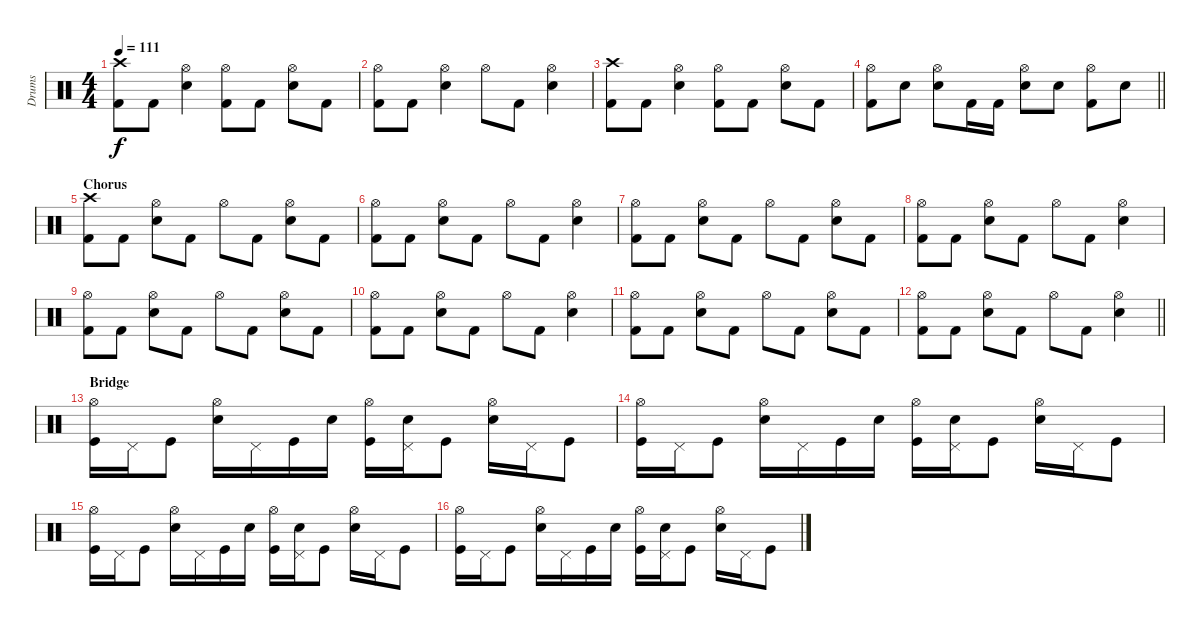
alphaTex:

\track ("Drums" "Drums") {instrument percussion}
\staff {score}
\articulation defaults
\ts (4 4)
\tempo 111
\clef neutral
\ks c
("Crash high (hit)" "Kick (hit) 2").8{dy f} "Kick (hit) 2".8 ("Hi-Hat (open)" "Snare (hit) 2").4 ("Hi-Hat (open)" "Kick (hit) 2").8 "Kick (hit) 2".8 ("Hi-Hat (open)" "Snare (hit) 2").8 "Kick (hit) 2".8 |
("Hi-Hat (open)" "Kick (hit) 2").8 "Kick (hit) 2".8 ("Hi-Hat (open)" "Snare (hit) 2").4 "Hi-Hat (open)".8 "Kick (hit) 2".8 ("Hi-Hat (open)" "Snare (hit) 2").4 |
("Crash high (hit)" "Kick (hit) 2").8 "Kick (hit) 2".8 ("Hi-Hat (open)" "Snare (hit) 2").4 ("Hi-Hat (open)" "Kick (hit) 2").8 "Kick (hit) 2".8 ("Hi-Hat (open)" "Snare (hit) 2").8 "Kick (hit) 2".8 |
\barLineRight lightlight
("Hi-Hat (open)" "Kick (hit) 2").8 "Snare (hit) 2".8 ("Hi-Hat (open)" "Snare (hit) 2").8 "Kick (hit) 2".16 "Kick (hit) 2".16 ("Hi-Hat (open)" "Snare (hit) 2").8 "Snare (hit) 2".8 ("Hi-Hat (open)" "Kick (hit) 2").8 "Snare (hit) 2".8 |
\section ("" "Chorus")
("Crash high (hit)" "Kick (hit) 2").8 "Kick (hit) 2".8 ("Hi-Hat (open)" "Snare (hit) 2").8 "Kick (hit) 2".8 "Hi-Hat (open)".8 "Kick (hit) 2".8 ("Hi-Hat (open)" "Snare (hit) 2").8 "Kick (hit) 2".8 |
("Hi-Hat (open)" "Kick (hit) 2").8 "Kick (hit) 2".8 ("Hi-Hat (open)" "Snare (hit) 2").8 "Kick (hit) 2".8 "Hi-Hat (open)".8 "Kick (hit) 2".8 ("Hi-Hat (open)" "Snare (hit) 2").4 |
("Hi-Hat (open)" "Kick (hit) 2").8 "Kick (hit) 2".8 ("Hi-Hat (open)" "Snare (hit) 2").8 "Kick (hit) 2".8 "Hi-Hat (open)".8 "Kick (hit) 2".8 ("Hi-Hat (open)" "Snare (hit) 2").8 "Kick (hit) 2".8 |
("Hi-Hat (open)" "Kick (hit) 2").8 "Kick (hit) 2".8 ("Hi-Hat (open)" "Snare (hit) 2").8 "Kick (hit) 2".8 "Hi-Hat (open)".8 "Kick (hit) 2".8 ("Hi-Hat (open)" "Snare (hit) 2").4 |
("Hi-Hat (open)" "Kick (hit) 2").8 "Kick (hit) 2".8 ("Hi-Hat (open)" "Snare (hit) 2").8 "Kick (hit) 2".8 "Hi-Hat (open)".8 "Kick (hit) 2".8 ("Hi-Hat (open)" "Snare (hit) 2").8 "Kick (hit) 2".8 |
("Hi-Hat (open)" "Kick (hit) 2").8 "Kick (hit) 2".8 ("Hi-Hat (open)" "Snare (hit) 2").8 "Kick (hit) 2".8 "Hi-Hat (open)".8 "Kick (hit) 2".8 ("Hi-Hat (open)" "Snare (hit) 2").4 |
("Hi-Hat (open)" "Kick (hit) 2").8 "Kick (hit) 2".8 ("Hi-Hat (open)" "Snare (hit) 2").8 "Kick (hit) 2".8 "Hi-Hat (open)".8 "Kick (hit) 2".8 ("Hi-Hat (open)" "Snare (hit) 2").8 "Kick (hit) 2".8 |
\barLineRight lightlight
("Hi-Hat (open)" "Kick (hit) 2").8 "Kick (hit) 2".8 ("Hi-Hat (open)" "Snare (hit) 2").8 "Kick (hit) 2".8 "Hi-Hat (open)".8 "Kick (hit) 2".8 ("Hi-Hat (open)" "Snare (hit) 2").4 |
\section ("" "Bridge")
("Hi-Hat (open)" "Kick (hit)").16 "Pedal Hi-Hat (hit)".16 "Kick (hit)".8 ("Hi-Hat (open)" "Electric Snare (hit)").16 "Pedal Hi-Hat (hit)".16 "Kick (hit)".16 "Electric Snare (hit)".16 ("Hi-Hat (open)" "Kick (hit)").16 ("Pedal Hi-Hat (hit)" "Electric Snare (hit)").16 "Kick (hit)".8 ("Hi-Hat (open)" "Electric Snare (hit)").16 "Pedal Hi-Hat (hit)".16 "Kick (hit)".8 |
("Hi-Hat (open)" "Kick (hit)").16 "Pedal Hi-Hat (hit)".16 "Kick (hit)".8 ("Hi-Hat (open)" "Electric Snare (hit)").16 "Pedal Hi-Hat (hit)".16 "Kick (hit)".16 "Electric Snare (hit)".16 ("Hi-Hat (open)" "Kick (hit)").16 ("Pedal Hi-Hat (hit)" "Electric Snare (hit)").16 "Kick (hit)".8 ("Hi-Hat (open)" "Electric Snare (hit)").16 "Pedal Hi-Hat (hit)".16 "Kick (hit)".8 |
("Hi-Hat (open)" "Kick (hit)").16 "Pedal Hi-Hat (hit)".16 "Kick (hit)".8 ("Hi-Hat (open)" "Electric Snare (hit)").16 "Pedal Hi-Hat (hit)".16 "Kick (hit)".16 "Electric Snare (hit)".16 ("Hi-Hat (open)" "Kick (hit)").16 ("Pedal Hi-Hat (hit)" "Electric Snare (hit)").16 "Kick (hit)".8 ("Hi-Hat (open)" "Electric Snare (hit)").16 "Pedal Hi-Hat (hit)".16 "Kick (hit)".8 |
("Hi-Hat (open)" "Kick (hit)").16 "Pedal Hi-Hat (hit)".16 "Kick (hit)".8 ("Hi-Hat (open)" "Electric Snare (hit)").16 "Pedal Hi-Hat (hit)".16 "Kick (hit)".16 "Electric Snare (hit)".16 ("Hi-Hat (open)" "Kick (hit)").16 ("Pedal Hi-Hat (hit)" "Electric Snare (hit)").16 "Kick (hit)".8 ("Hi-Hat (open)" "Electric Snare (hit)").16 "Pedal Hi-Hat (hit)".16 "Kick (hit)".8
